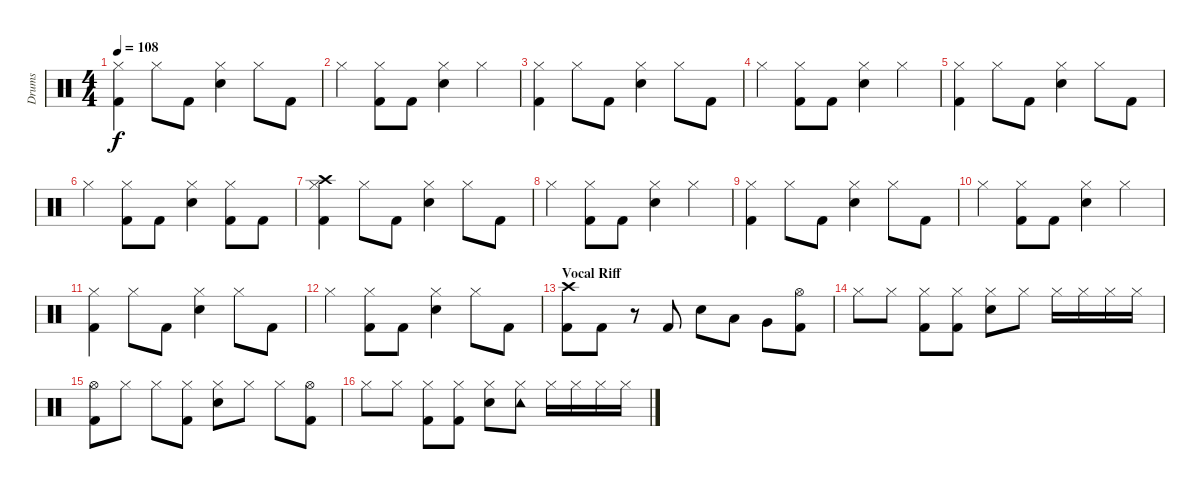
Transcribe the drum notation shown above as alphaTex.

\track ("Drums" "Drums") {instrument percussion}
\staff {score}
\articulation defaults
\ts (4 4)
\tempo 108
\clef neutral
\ks c
("Kick (hit) 2" "Hi-Hat (closed)").4{dy f} "Hi-Hat (closed)".8 "Kick (hit) 2".8 ("Electric Snare (hit)" "Hi-Hat (closed)").4 "Hi-Hat (closed)".8 "Kick (hit) 2".8 |
"Hi-Hat (closed)".4 ("Kick (hit) 2" "Hi-Hat (closed)").8 "Kick (hit) 2".8 ("Electric Snare (hit)" "Hi-Hat (closed)").4 "Hi-Hat (closed)".4 |
("Kick (hit) 2" "Hi-Hat (closed)").4 "Hi-Hat (closed)".8 "Kick (hit) 2".8 ("Electric Snare (hit)" "Hi-Hat (closed)").4 "Hi-Hat (closed)".8 "Kick (hit) 2".8 |
"Hi-Hat (closed)".4 ("Kick (hit) 2" "Hi-Hat (closed)").8 "Kick (hit) 2".8 ("Electric Snare (hit)" "Hi-Hat (closed)").4 "Hi-Hat (closed)".4 |
("Kick (hit) 2" "Hi-Hat (closed)").4 "Hi-Hat (closed)".8 "Kick (hit) 2".8 ("Electric Snare (hit)" "Hi-Hat (closed)").4 "Hi-Hat (closed)".8 "Kick (hit) 2".8 |
"Hi-Hat (closed)".4 ("Kick (hit) 2" "Hi-Hat (closed)").8 "Kick (hit) 2".8 ("Electric Snare (hit)" "Hi-Hat (closed)").4 ("Kick (hit) 2" "Hi-Hat (closed)").8 "Kick (hit) 2".8 |
("Kick (hit) 2" "Hi-Hat (closed)" "Crash high (hit)").4 "Hi-Hat (closed)".8 "Kick (hit) 2".8 ("Electric Snare (hit)" "Hi-Hat (closed)").4 "Hi-Hat (closed)".8 "Kick (hit) 2".8 |
"Hi-Hat (closed)".4 ("Kick (hit) 2" "Hi-Hat (closed)").8 "Kick (hit) 2".8 ("Electric Snare (hit)" "Hi-Hat (closed)").4 "Hi-Hat (closed)".4 |
("Kick (hit) 2" "Hi-Hat (closed)").4 "Hi-Hat (closed)".8 "Kick (hit) 2".8 ("Electric Snare (hit)" "Hi-Hat (closed)").4 "Hi-Hat (closed)".8 "Kick (hit) 2".8 |
"Hi-Hat (closed)".4 ("Kick (hit) 2" "Hi-Hat (closed)").8 "Kick (hit) 2".8 ("Electric Snare (hit)" "Hi-Hat (closed)").4 "Hi-Hat (closed)".4 |
("Kick (hit) 2" "Hi-Hat (closed)").4 "Hi-Hat (closed)".8 "Kick (hit) 2".8 ("Electric Snare (hit)" "Hi-Hat (closed)").4 "Hi-Hat (closed)".8 "Kick (hit) 2".8 |
"Hi-Hat (closed)".4 ("Kick (hit) 2" "Hi-Hat (closed)").8 "Kick (hit) 2".8 ("Electric Snare (hit)" "Hi-Hat (closed)").4 "Hi-Hat (closed)".8 "Kick (hit) 2".8 |
\section ("" "Vocal Riff")
("Kick (hit) 2" "Crash high (hit)").8 "Kick (hit) 2".8 r.8 "Kick (hit) 2".8 "Electric Snare (hit)".8 "Low Tom (hit)".8 "Very Low Tom (hit)".8 ("Kick (hit) 2" "Hi-Hat (open)").8 |
"Hi-Hat (closed)".8 "Hi-Hat (closed)".8 ("Kick (hit) 2" "Hi-Hat (closed)").8 ("Kick (hit) 2" "Hi-Hat (closed)").8 ("Electric Snare (hit)" "Hi-Hat (closed)").8 "Hi-Hat (closed)".8 "Hi-Hat (closed)".16 "Hi-Hat (closed)".16 "Hi-Hat (closed)".16 "Hi-Hat (closed)".16 |
("Kick (hit) 2" "Hi-Hat (open)").8 "Hi-Hat (closed)".8 "Hi-Hat (closed)".8 ("Kick (hit) 2" "Hi-Hat (closed)").8 ("Electric Snare (hit)" "Hi-Hat (closed)").8 "Hi-Hat (closed)".8 "Hi-Hat (closed)".8 ("Kick (hit) 2" "Hi-Hat (open)").8 |
"Hi-Hat (closed)".8 "Hi-Hat (closed)".8 ("Kick (hit) 2" "Hi-Hat (closed)").8 ("Kick (hit) 2" "Hi-Hat (closed)").8 ("Electric Snare (hit)" "Hi-Hat (closed)").8 ("Hi-Hat (closed)" "Tambourine (hit)").8 "Hi-Hat (closed)".16 "Hi-Hat (closed)".16 "Hi-Hat (closed)".16 "Hi-Hat (closed)".16
